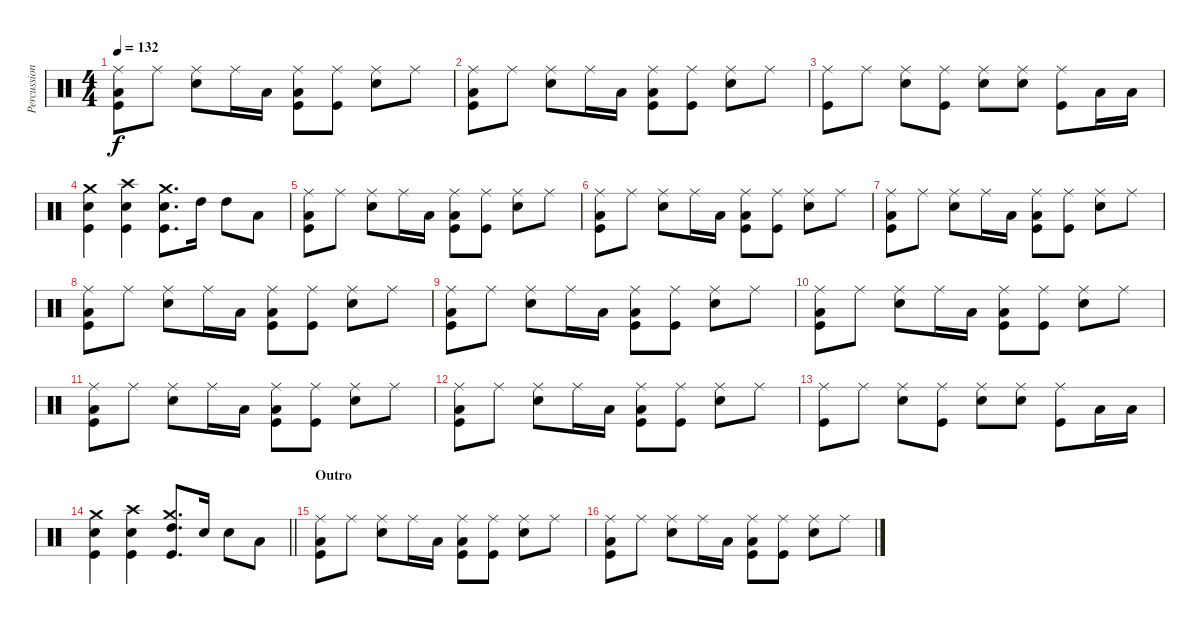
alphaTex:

\track ("Percussion" "Percussion") {instrument percussion}
\staff {score}
\articulation defaults
\ts (4 4)
\tempo 132
\clef neutral
\ks c
("Ride (middle)" "Low Tom (hit)" "Kick (hit)").8{dy f} "Ride (middle)".8 ("Ride (middle)" "Snare (hit) 2").8 "Ride (middle)".16 "Low Tom (hit)".16 ("Ride (middle)" "Low Tom (hit)" "Kick (hit)").8 ("Ride (middle)" "Kick (hit)").8 ("Ride (middle)" "Snare (hit) 2").8 "Ride (middle)".8 |
("Ride (middle)" "Low Tom (hit)" "Kick (hit)").8 "Ride (middle)".8 ("Ride (middle)" "Snare (hit) 2").8 "Ride (middle)".16 "Low Tom (hit)".16 ("Ride (middle)" "Low Tom (hit)" "Kick (hit)").8 ("Ride (middle)" "Kick (hit)").8 ("Ride (middle)" "Snare (hit) 2").8 "Ride (middle)".8 |
("Ride (middle)" "Kick (hit)").8 "Ride (middle)".8 ("Ride (middle)" "Snare (hit) 2").8 ("Ride (middle)" "Kick (hit)").8 ("Ride (middle)" "Snare (hit) 2").8 ("Ride (middle)" "Snare (hit) 2").8 ("Ride (middle)" "Kick (hit)").8 "Low Tom (hit)".16 "Low Tom (hit)".16 |
("Crash medium (hit)" "Snare (hit) 2" "Kick (hit)").4 ("Crash high (hit)" "Snare (hit) 2" "Kick (hit)").4 ("Crash medium (hit)" "Snare (hit) 2" "Kick (hit)").8{d} "High Tom (hit)".16 "High Tom (hit)".8 "Low Tom (hit)".8 |
("Ride (middle)" "Low Tom (hit)" "Kick (hit)").8 "Ride (middle)".8 ("Ride (middle)" "Snare (hit) 2").8 "Ride (middle)".16 "Low Tom (hit)".16 ("Ride (middle)" "Low Tom (hit)" "Kick (hit)").8 ("Ride (middle)" "Kick (hit)").8 ("Ride (middle)" "Snare (hit) 2").8 "Ride (middle)".8 |
("Ride (middle)" "Low Tom (hit)" "Kick (hit)").8 "Ride (middle)".8 ("Ride (middle)" "Snare (hit) 2").8 "Ride (middle)".16 "Low Tom (hit)".16 ("Ride (middle)" "Low Tom (hit)" "Kick (hit)").8 ("Ride (middle)" "Kick (hit)").8 ("Ride (middle)" "Snare (hit) 2").8 "Ride (middle)".8 |
("Ride (middle)" "Low Tom (hit)" "Kick (hit)").8 "Ride (middle)".8 ("Ride (middle)" "Snare (hit) 2").8 "Ride (middle)".16 "Low Tom (hit)".16 ("Ride (middle)" "Low Tom (hit)" "Kick (hit)").8 ("Ride (middle)" "Kick (hit)").8 ("Ride (middle)" "Snare (hit) 2").8 "Ride (middle)".8 |
("Ride (middle)" "Low Tom (hit)" "Kick (hit)").8 "Ride (middle)".8 ("Ride (middle)" "Snare (hit) 2").8 "Ride (middle)".16 "Low Tom (hit)".16 ("Ride (middle)" "Low Tom (hit)" "Kick (hit)").8 ("Ride (middle)" "Kick (hit)").8 ("Ride (middle)" "Snare (hit) 2").8 "Ride (middle)".8 |
("Ride (middle)" "Low Tom (hit)" "Kick (hit)").8 "Ride (middle)".8 ("Ride (middle)" "Snare (hit) 2").8 "Ride (middle)".16 "Low Tom (hit)".16 ("Ride (middle)" "Low Tom (hit)" "Kick (hit)").8 ("Ride (middle)" "Kick (hit)").8 ("Ride (middle)" "Snare (hit) 2").8 "Ride (middle)".8 |
("Ride (middle)" "Low Tom (hit)" "Kick (hit)").8 "Ride (middle)".8 ("Ride (middle)" "Snare (hit) 2").8 "Ride (middle)".16 "Low Tom (hit)".16 ("Ride (middle)" "Low Tom (hit)" "Kick (hit)").8 ("Ride (middle)" "Kick (hit)").8 ("Ride (middle)" "Snare (hit) 2").8 "Ride (middle)".8 |
("Ride (middle)" "Low Tom (hit)" "Kick (hit)").8 "Ride (middle)".8 ("Ride (middle)" "Snare (hit) 2").8 "Ride (middle)".16 "Low Tom (hit)".16 ("Ride (middle)" "Low Tom (hit)" "Kick (hit)").8 ("Ride (middle)" "Kick (hit)").8 ("Ride (middle)" "Snare (hit) 2").8 "Ride (middle)".8 |
("Ride (middle)" "Low Tom (hit)" "Kick (hit)").8 "Ride (middle)".8 ("Ride (middle)" "Snare (hit) 2").8 "Ride (middle)".16 "Low Tom (hit)".16 ("Ride (middle)" "Low Tom (hit)" "Kick (hit)").8 ("Ride (middle)" "Kick (hit)").8 ("Ride (middle)" "Snare (hit) 2").8 "Ride (middle)".8 |
("Ride (middle)" "Kick (hit)").8 "Ride (middle)".8 ("Ride (middle)" "Snare (hit) 2").8 ("Ride (middle)" "Kick (hit)").8 ("Ride (middle)" "Snare (hit) 2").8 ("Ride (middle)" "Snare (hit) 2").8 ("Ride (middle)" "Kick (hit)").8 "Low Tom (hit)".16 "Low Tom (hit)".16 |
\barLineRight lightlight
("Crash medium (hit)" "Snare (hit) 2" "Kick (hit)").4 ("Crash high (hit)" "Snare (hit) 2" "Kick (hit)").4 ("Crash medium (hit)" "High Tom (hit)" "Kick (hit)").8{d} "Snare (hit) 2".16 "Snare (hit) 2".8 "Low Tom (hit)".8 |
\section ("" "Outro")
("Ride (middle)" "Low Tom (hit)" "Kick (hit)").8 "Ride (middle)".8 ("Ride (middle)" "Snare (hit) 2").8 "Ride (middle)".16 "Low Tom (hit)".16 ("Ride (middle)" "Low Tom (hit)" "Kick (hit)").8 ("Ride (middle)" "Kick (hit)").8 ("Ride (middle)" "Snare (hit) 2").8 "Ride (middle)".8 |
("Ride (middle)" "Low Tom (hit)" "Kick (hit)").8 "Ride (middle)".8 ("Ride (middle)" "Snare (hit) 2").8 "Ride (middle)".16 "Low Tom (hit)".16 ("Ride (middle)" "Low Tom (hit)" "Kick (hit)").8 ("Ride (middle)" "Kick (hit)").8 ("Ride (middle)" "Snare (hit) 2").8 "Ride (middle)".8
